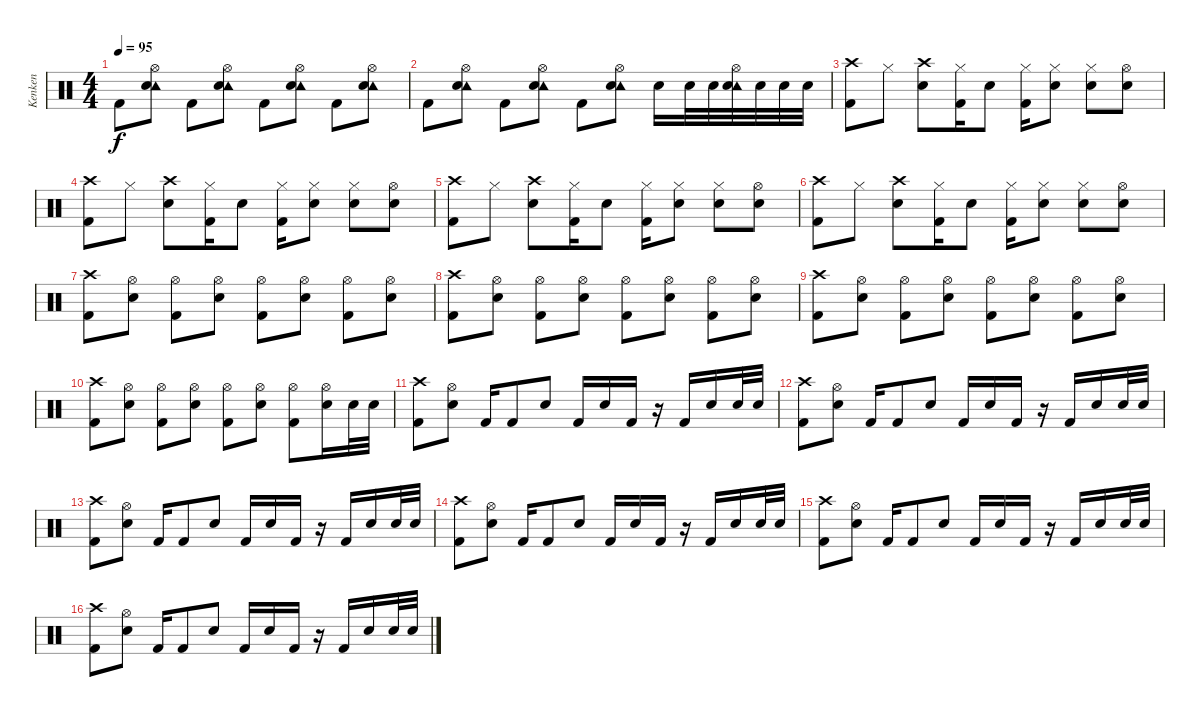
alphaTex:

\track ("Kenken" "Kenken") {instrument percussion}
\staff {score}
\articulation defaults
\ts (4 4)
\tempo 95
\clef neutral
\ks c "Kick (hit) 2".8{dy f}
("Hi-Hat (open)" "Tambourine (hit)" "Snare (hit) 2").8 "Kick (hit) 2".8 ("Hi-Hat (open)" "Tambourine (hit)" "Snare (hit) 2").8 "Kick (hit) 2".8 ("Hi-Hat (open)" "Tambourine (hit)" "Snare (hit) 2").8 "Kick (hit) 2".8 ("Hi-Hat (open)" "Tambourine (hit)" "Snare (hit) 2").8 |
"Kick (hit) 2".8 ("Hi-Hat (open)" "Tambourine (hit)" "Snare (hit) 2").8 "Kick (hit) 2".8 ("Hi-Hat (open)" "Tambourine (hit)" "Snare (hit) 2").8 "Kick (hit) 2".8 ("Hi-Hat (open)" "Tambourine (hit)" "Snare (hit) 2").8 "Snare (hit) 2".16 "Snare (hit) 2".32 "Snare (hit) 2".32 ("Tambourine (hit)" "Hi-Hat (open)" "Snare (hit) 2").32 "Snare (hit) 2".32 "Snare (hit) 2".32 "Snare (hit) 2".32 |
("Crash high (hit)" "Kick (hit) 2").8 "Hi-Hat (closed)".8 ("Crash high (hit)" "Snare (hit) 2").8 ("Hi-Hat (closed)" "Kick (hit) 2").16 "Snare (hit) 2".8 ("Hi-Hat (closed)" "Kick (hit) 2").16 ("Hi-Hat (closed)" "Snare (hit) 2").8 ("Hi-Hat (closed)" "Snare (hit) 2").8 ("Hi-Hat (open)" "Snare (hit) 2").8 |
("Crash high (hit)" "Kick (hit) 2").8 "Hi-Hat (closed)".8 ("Crash high (hit)" "Snare (hit) 2").8 ("Hi-Hat (closed)" "Kick (hit) 2").16 "Snare (hit) 2".8 ("Hi-Hat (closed)" "Kick (hit) 2").16 ("Hi-Hat (closed)" "Snare (hit) 2").8 ("Hi-Hat (closed)" "Snare (hit) 2").8 ("Hi-Hat (open)" "Snare (hit) 2").8 |
("Crash high (hit)" "Kick (hit) 2").8 "Hi-Hat (closed)".8 ("Crash high (hit)" "Snare (hit) 2").8 ("Hi-Hat (closed)" "Kick (hit) 2").16 "Snare (hit) 2".8 ("Hi-Hat (closed)" "Kick (hit) 2").16 ("Hi-Hat (closed)" "Snare (hit) 2").8 ("Hi-Hat (closed)" "Snare (hit) 2").8 ("Hi-Hat (open)" "Snare (hit) 2").8 |
("Crash high (hit)" "Kick (hit) 2").8 "Hi-Hat (closed)".8 ("Crash high (hit)" "Snare (hit) 2").8 ("Hi-Hat (closed)" "Kick (hit) 2").16 "Snare (hit) 2".8 ("Hi-Hat (closed)" "Kick (hit) 2").16 ("Hi-Hat (closed)" "Snare (hit) 2").8 ("Hi-Hat (closed)" "Snare (hit) 2").8 ("Hi-Hat (open)" "Snare (hit) 2").8 |
("Crash high (hit)" "Kick (hit) 2").8 ("Hi-Hat (open)" "Snare (hit) 2").8 ("Hi-Hat (open)" "Kick (hit) 2").8 ("Hi-Hat (open)" "Snare (hit) 2").8 ("Hi-Hat (open)" "Kick (hit) 2").8 ("Hi-Hat (open)" "Snare (hit) 2").8 ("Hi-Hat (open)" "Kick (hit) 2").8 ("Hi-Hat (open)" "Snare (hit) 2").8 |
("Crash high (hit)" "Kick (hit) 2").8 ("Hi-Hat (open)" "Snare (hit) 2").8 ("Hi-Hat (open)" "Kick (hit) 2").8 ("Hi-Hat (open)" "Snare (hit) 2").8 ("Hi-Hat (open)" "Kick (hit) 2").8 ("Hi-Hat (open)" "Snare (hit) 2").8 ("Hi-Hat (open)" "Kick (hit) 2").8 ("Hi-Hat (open)" "Snare (hit) 2").8 |
("Crash high (hit)" "Kick (hit) 2").8 ("Hi-Hat (open)" "Snare (hit) 2").8 ("Hi-Hat (open)" "Kick (hit) 2").8 ("Hi-Hat (open)" "Snare (hit) 2").8 ("Hi-Hat (open)" "Kick (hit) 2").8 ("Hi-Hat (open)" "Snare (hit) 2").8 ("Hi-Hat (open)" "Kick (hit) 2").8 ("Hi-Hat (open)" "Snare (hit) 2").8 |
("Crash high (hit)" "Kick (hit) 2").8 ("Hi-Hat (open)" "Snare (hit) 2").8 ("Hi-Hat (open)" "Kick (hit) 2").8 ("Hi-Hat (open)" "Snare (hit) 2").8 ("Hi-Hat (open)" "Kick (hit) 2").8 ("Hi-Hat (open)" "Snare (hit) 2").8 ("Hi-Hat (open)" "Kick (hit) 2").8 ("Hi-Hat (open)" "Snare (hit) 2").16 "Snare (hit) 2".32 "Snare (hit) 2".32 |
("Crash high (hit)" "Kick (hit) 2").8 ("Hi-Hat (open)" "Snare (hit) 2").8 "Kick (hit) 2".16 "Kick (hit) 2".8 "Snare (hit) 2".8 "Kick (hit) 2".16 "Snare (hit) 2".16 "Kick (hit) 2".16 r.16 "Kick (hit) 2".16 "Snare (hit) 2".16 "Snare (hit) 2".32 "Snare (hit) 2".32 |
("Crash high (hit)" "Kick (hit) 2").8 ("Hi-Hat (open)" "Snare (hit) 2").8 "Kick (hit) 2".16 "Kick (hit) 2".8 "Snare (hit) 2".8 "Kick (hit) 2".16 "Snare (hit) 2".16 "Kick (hit) 2".16 r.16 "Kick (hit) 2".16 "Snare (hit) 2".16 "Snare (hit) 2".32 "Snare (hit) 2".32 |
("Crash high (hit)" "Kick (hit) 2").8 ("Hi-Hat (open)" "Snare (hit) 2").8 "Kick (hit) 2".16 "Kick (hit) 2".8 "Snare (hit) 2".8 "Kick (hit) 2".16 "Snare (hit) 2".16 "Kick (hit) 2".16 r.16 "Kick (hit) 2".16 "Snare (hit) 2".16 "Snare (hit) 2".32 "Snare (hit) 2".32 |
("Crash high (hit)" "Kick (hit) 2").8 ("Hi-Hat (open)" "Snare (hit) 2").8 "Kick (hit) 2".16 "Kick (hit) 2".8 "Snare (hit) 2".8 "Kick (hit) 2".16 "Snare (hit) 2".16 "Kick (hit) 2".16 r.16 "Kick (hit) 2".16 "Snare (hit) 2".16 "Snare (hit) 2".32 "Snare (hit) 2".32 |
("Crash high (hit)" "Kick (hit) 2").8 ("Hi-Hat (open)" "Snare (hit) 2").8 "Kick (hit) 2".16 "Kick (hit) 2".8 "Snare (hit) 2".8 "Kick (hit) 2".16 "Snare (hit) 2".16 "Kick (hit) 2".16 r.16 "Kick (hit) 2".16 "Snare (hit) 2".16 "Snare (hit) 2".32 "Snare (hit) 2".32 |
("Crash high (hit)" "Kick (hit) 2").8 ("Hi-Hat (open)" "Snare (hit) 2").8 "Kick (hit) 2".16 "Kick (hit) 2".8 "Snare (hit) 2".8 "Kick (hit) 2".16 "Snare (hit) 2".16 "Kick (hit) 2".16 r.16 "Kick (hit) 2".16 "Snare (hit) 2".16 "Snare (hit) 2".32 "Snare (hit) 2".32
